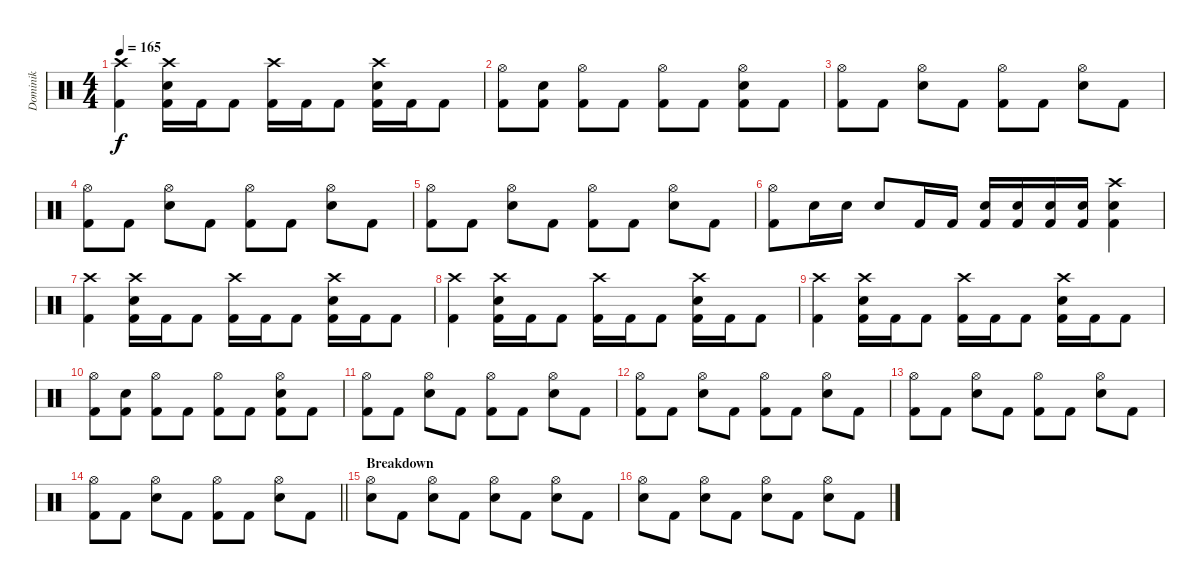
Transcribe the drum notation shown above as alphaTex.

\track ("Dominik" "Dominik") {instrument percussion}
\staff {score}
\articulation defaults
\ts (4 4)
\tempo 165
\clef neutral
\ks c
("Crash high (hit)" "Kick (hit) 2").4{dy f} ("Crash high (hit)" "Electric Snare (hit)" "Kick (hit) 2").16 "Kick (hit) 2".16 "Kick (hit) 2".8 ("Crash high (hit)" "Kick (hit) 2").16 "Kick (hit) 2".16 "Kick (hit) 2".8 ("Crash high (hit)" "Electric Snare (hit)" "Kick (hit) 2").16 "Kick (hit) 2".16 "Kick (hit) 2".8 |
("Hi-Hat (open)" "Kick (hit) 2").8 ("Electric Snare (hit)" "Kick (hit) 2").8 ("Hi-Hat (open)" "Kick (hit) 2").8 "Kick (hit) 2".8 ("Hi-Hat (open)" "Kick (hit) 2").8 "Kick (hit) 2".8 ("Hi-Hat (open)" "Electric Snare (hit)" "Kick (hit) 2").8 "Kick (hit) 2".8 |
("Hi-Hat (open)" "Kick (hit) 2").8 "Kick (hit) 2".8 ("Hi-Hat (open)" "Electric Snare (hit)").8 "Kick (hit) 2".8 ("Hi-Hat (open)" "Kick (hit) 2").8 "Kick (hit) 2".8 ("Hi-Hat (open)" "Electric Snare (hit)").8 "Kick (hit) 2".8 |
("Hi-Hat (open)" "Kick (hit) 2").8 "Kick (hit) 2".8 ("Hi-Hat (open)" "Electric Snare (hit)").8 "Kick (hit) 2".8 ("Hi-Hat (open)" "Kick (hit) 2").8 "Kick (hit) 2".8 ("Hi-Hat (open)" "Electric Snare (hit)").8 "Kick (hit) 2".8 |
("Hi-Hat (open)" "Kick (hit) 2").8 "Kick (hit) 2".8 ("Hi-Hat (open)" "Electric Snare (hit)").8 "Kick (hit) 2".8 ("Hi-Hat (open)" "Kick (hit) 2").8 "Kick (hit) 2".8 ("Hi-Hat (open)" "Electric Snare (hit)").8 "Kick (hit) 2".8 |
("Hi-Hat (open)" "Kick (hit) 2").8 "Electric Snare (hit)".16 "Electric Snare (hit)".16 "Electric Snare (hit)".8 "Kick (hit) 2".16 "Kick (hit) 2".16 ("Electric Snare (hit)" "Kick (hit) 2").16 ("Electric Snare (hit)" "Kick (hit) 2").16 ("Electric Snare (hit)" "Kick (hit) 2").16 ("Electric Snare (hit)" "Kick (hit) 2").16 ("Crash high (hit)" "Electric Snare (hit)" "Kick (hit) 2").4 |
("Crash high (hit)" "Kick (hit) 2").4 ("Crash high (hit)" "Electric Snare (hit)" "Kick (hit) 2").16 "Kick (hit) 2".16 "Kick (hit) 2".8 ("Crash high (hit)" "Kick (hit) 2").16 "Kick (hit) 2".16 "Kick (hit) 2".8 ("Crash high (hit)" "Electric Snare (hit)" "Kick (hit) 2").16 "Kick (hit) 2".16 "Kick (hit) 2".8 |
("Crash high (hit)" "Kick (hit) 2").4 ("Crash high (hit)" "Electric Snare (hit)" "Kick (hit) 2").16 "Kick (hit) 2".16 "Kick (hit) 2".8 ("Crash high (hit)" "Kick (hit) 2").16 "Kick (hit) 2".16 "Kick (hit) 2".8 ("Crash high (hit)" "Electric Snare (hit)" "Kick (hit) 2").16 "Kick (hit) 2".16 "Kick (hit) 2".8 |
("Crash high (hit)" "Kick (hit) 2").4 ("Crash high (hit)" "Electric Snare (hit)" "Kick (hit) 2").16 "Kick (hit) 2".16 "Kick (hit) 2".8 ("Crash high (hit)" "Kick (hit) 2").16 "Kick (hit) 2".16 "Kick (hit) 2".8 ("Crash high (hit)" "Electric Snare (hit)" "Kick (hit) 2").16 "Kick (hit) 2".16 "Kick (hit) 2".8 |
("Hi-Hat (open)" "Kick (hit) 2").8 ("Electric Snare (hit)" "Kick (hit) 2").8 ("Hi-Hat (open)" "Kick (hit) 2").8 "Kick (hit) 2".8 ("Hi-Hat (open)" "Kick (hit) 2").8 "Kick (hit) 2".8 ("Hi-Hat (open)" "Electric Snare (hit)" "Kick (hit) 2").8 "Kick (hit) 2".8 |
("Hi-Hat (open)" "Kick (hit) 2").8 "Kick (hit) 2".8 ("Hi-Hat (open)" "Electric Snare (hit)").8 "Kick (hit) 2".8 ("Hi-Hat (open)" "Kick (hit) 2").8 "Kick (hit) 2".8 ("Hi-Hat (open)" "Electric Snare (hit)").8 "Kick (hit) 2".8 |
("Hi-Hat (open)" "Kick (hit) 2").8 "Kick (hit) 2".8 ("Hi-Hat (open)" "Electric Snare (hit)").8 "Kick (hit) 2".8 ("Hi-Hat (open)" "Kick (hit) 2").8 "Kick (hit) 2".8 ("Hi-Hat (open)" "Electric Snare (hit)").8 "Kick (hit) 2".8 |
("Hi-Hat (open)" "Kick (hit) 2").8 "Kick (hit) 2".8 ("Hi-Hat (open)" "Electric Snare (hit)").8 "Kick (hit) 2".8 ("Hi-Hat (open)" "Kick (hit) 2").8 "Kick (hit) 2".8 ("Hi-Hat (open)" "Electric Snare (hit)").8 "Kick (hit) 2".8 |
\barLineRight lightlight
("Hi-Hat (open)" "Kick (hit) 2").8 "Kick (hit) 2".8 ("Hi-Hat (open)" "Electric Snare (hit)").8 "Kick (hit) 2".8 ("Hi-Hat (open)" "Kick (hit) 2").8 "Kick (hit) 2".8 ("Hi-Hat (open)" "Electric Snare (hit)").8 "Kick (hit) 2".8 |
\section ("" "Breakdown")
("Hi-Hat (open)" "Electric Snare (hit)").8 "Kick (hit) 2".8 ("Hi-Hat (open)" "Electric Snare (hit)").8 "Kick (hit) 2".8 ("Hi-Hat (open)" "Electric Snare (hit)").8 "Kick (hit) 2".8 ("Hi-Hat (open)" "Electric Snare (hit)").8 "Kick (hit) 2".8 |
("Hi-Hat (open)" "Electric Snare (hit)").8 "Kick (hit) 2".8 ("Hi-Hat (open)" "Electric Snare (hit)").8 "Kick (hit) 2".8 ("Hi-Hat (open)" "Electric Snare (hit)").8 "Kick (hit) 2".8 ("Hi-Hat (open)" "Electric Snare (hit)").8 "Kick (hit) 2".8
